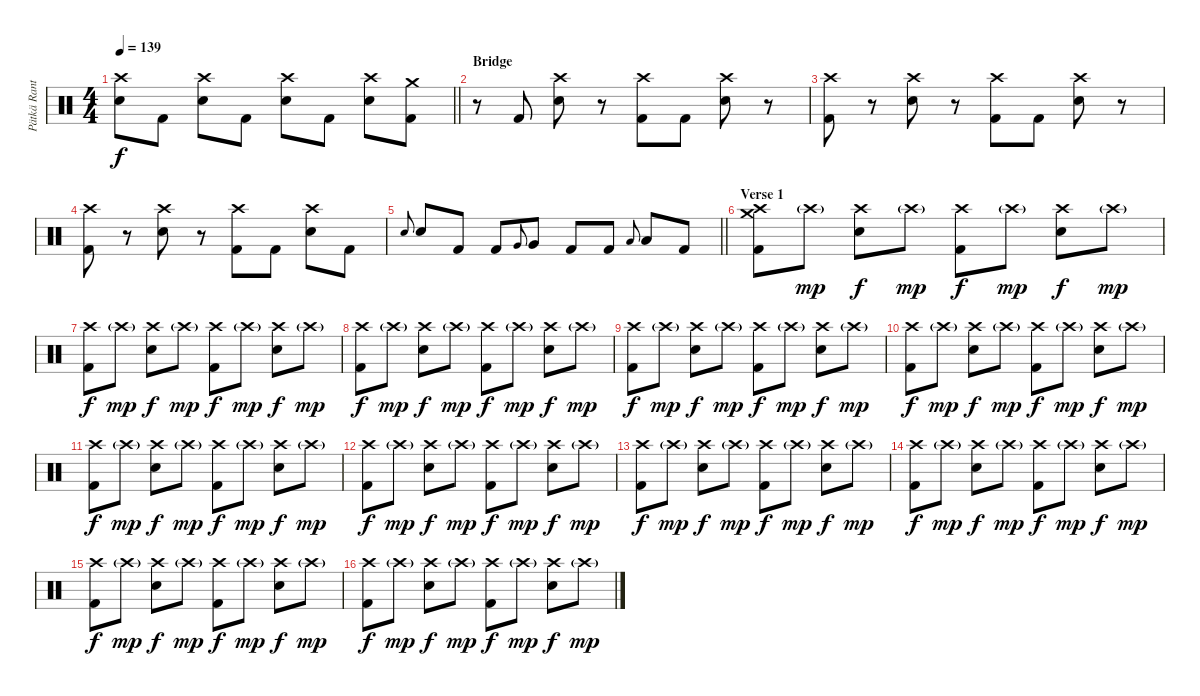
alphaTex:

\track ("Pätkä Rantala (Drums)" "Pätkä Rant") {instrument percussion}
\staff {score}
\articulation defaults
\ts (4 4)
\tempo 139
\clef neutral
\barLineRight lightlight
\ks c
("Crash high (hit)" "Snare (hit) 2").8{dy f} "Kick (hit) 2".8 ("Crash high (hit)" "Snare (hit) 2").8 "Kick (hit) 2".8 ("Crash high (hit)" "Snare (hit) 2").8 "Kick (hit) 2".8 ("Crash high (hit)" "Snare (hit) 2").8 ("Crash medium (hit)" "Kick (hit) 2").8 |
\section ("" "Bridge")
r.8 "Kick (hit) 2".8 ("Crash high (hit)" "Snare (hit) 2").8 r.8 ("Crash high (hit)" "Kick (hit) 2").8 "Kick (hit) 2".8 ("Crash high (hit)" "Snare (hit) 2").8 r.8 |
("Crash high (hit)" "Kick (hit) 2").8 r.8 ("Crash high (hit)" "Snare (hit) 2").8 r.8 ("Crash high (hit)" "Kick (hit) 2").8 "Kick (hit) 2".8 ("Crash high (hit)" "Snare (hit) 2").8 r.8 |
("Crash high (hit)" "Kick (hit) 2").8 r.8 ("Crash high (hit)" "Snare (hit) 2").8 r.8 ("Crash high (hit)" "Kick (hit) 2").8 "Kick (hit) 2".8 ("Crash high (hit)" "Snare (hit) 2").8 "Kick (hit) 2".8 |
\barLineRight lightlight "Snare (hit) 2".8{gr onbeat} "Snare (hit) 2".8 "Kick (hit) 2".8 "Kick (hit) 2".8 "Very Low Tom (hit)".8{gr onbeat} "Very Low Tom (hit)".8 "Kick (hit) 2".8 "Kick (hit) 2".8 "Low Floor Tom (hit)".8{gr onbeat} "Low Floor Tom (hit)".8 "Kick (hit) 2".8
|
\section ("" "Verse 1")
("Crash medium (hit)" "Crash high (hit)" "Kick (hit) 2").8 "Crash high (hit)"{g}.8{dy mp} ("Crash high (hit)" "Snare (hit) 2").8{dy f} "Crash high (hit)"{g}.8{dy mp} ("Crash high (hit)" "Kick (hit) 2").8{dy f} "Crash high (hit)"{g}.8{dy mp} ("Crash high (hit)" "Snare (hit) 2").8{dy f} "Crash high (hit)"{g}.8{dy mp} |
("Crash high (hit)" "Kick (hit) 2").8{dy f} "Crash high (hit)"{g}.8{dy mp} ("Crash high (hit)" "Snare (hit) 2").8{dy f} "Crash high (hit)"{g}.8{dy mp} ("Crash high (hit)" "Kick (hit) 2").8{dy f} "Crash high (hit)"{g}.8{dy mp} ("Crash high (hit)" "Snare (hit) 2").8{dy f} "Crash high (hit)"{g}.8{dy mp} |
("Crash high (hit)" "Kick (hit) 2").8{dy f} "Crash high (hit)"{g}.8{dy mp} ("Crash high (hit)" "Snare (hit) 2").8{dy f} "Crash high (hit)"{g}.8{dy mp} ("Crash high (hit)" "Kick (hit) 2").8{dy f} "Crash high (hit)"{g}.8{dy mp} ("Crash high (hit)" "Snare (hit) 2").8{dy f} "Crash high (hit)"{g}.8{dy mp} |
("Crash high (hit)" "Kick (hit) 2").8{dy f} "Crash high (hit)"{g}.8{dy mp} ("Crash high (hit)" "Snare (hit) 2").8{dy f} "Crash high (hit)"{g}.8{dy mp} ("Crash high (hit)" "Kick (hit) 2").8{dy f} "Crash high (hit)"{g}.8{dy mp} ("Crash high (hit)" "Snare (hit) 2").8{dy f} "Crash high (hit)"{g}.8{dy mp} |
("Crash high (hit)" "Kick (hit) 2").8{dy f} "Crash high (hit)"{g}.8{dy mp} ("Crash high (hit)" "Snare (hit) 2").8{dy f} "Crash high (hit)"{g}.8{dy mp} ("Crash high (hit)" "Kick (hit) 2").8{dy f} "Crash high (hit)"{g}.8{dy mp} ("Crash high (hit)" "Snare (hit) 2").8{dy f} "Crash high (hit)"{g}.8{dy mp} |
("Crash high (hit)" "Kick (hit) 2").8{dy f} "Crash high (hit)"{g}.8{dy mp} ("Crash high (hit)" "Snare (hit) 2").8{dy f} "Crash high (hit)"{g}.8{dy mp} ("Crash high (hit)" "Kick (hit) 2").8{dy f} "Crash high (hit)"{g}.8{dy mp} ("Crash high (hit)" "Snare (hit) 2").8{dy f} "Crash high (hit)"{g}.8{dy mp} |
("Crash high (hit)" "Kick (hit) 2").8{dy f} "Crash high (hit)"{g}.8{dy mp} ("Crash high (hit)" "Snare (hit) 2").8{dy f} "Crash high (hit)"{g}.8{dy mp} ("Crash high (hit)" "Kick (hit) 2").8{dy f} "Crash high (hit)"{g}.8{dy mp} ("Crash high (hit)" "Snare (hit) 2").8{dy f} "Crash high (hit)"{g}.8{dy mp} |
("Crash high (hit)" "Kick (hit) 2").8{dy f} "Crash high (hit)"{g}.8{dy mp} ("Crash high (hit)" "Snare (hit) 2").8{dy f} "Crash high (hit)"{g}.8{dy mp} ("Crash high (hit)" "Kick (hit) 2").8{dy f} "Crash high (hit)"{g}.8{dy mp} ("Crash high (hit)" "Snare (hit) 2").8{dy f} "Crash high (hit)"{g}.8{dy mp} |
("Crash high (hit)" "Kick (hit) 2").8{dy f} "Crash high (hit)"{g}.8{dy mp} ("Crash high (hit)" "Snare (hit) 2").8{dy f} "Crash high (hit)"{g}.8{dy mp} ("Crash high (hit)" "Kick (hit) 2").8{dy f} "Crash high (hit)"{g}.8{dy mp} ("Crash high (hit)" "Snare (hit) 2").8{dy f} "Crash high (hit)"{g}.8{dy mp} |
("Crash high (hit)" "Kick (hit) 2").8{dy f} "Crash high (hit)"{g}.8{dy mp} ("Crash high (hit)" "Snare (hit) 2").8{dy f} "Crash high (hit)"{g}.8{dy mp} ("Crash high (hit)" "Kick (hit) 2").8{dy f} "Crash high (hit)"{g}.8{dy mp} ("Crash high (hit)" "Snare (hit) 2").8{dy f} "Crash high (hit)"{g}.8{dy mp} |
("Crash high (hit)" "Kick (hit) 2").8{dy f} "Crash high (hit)"{g}.8{dy mp} ("Crash high (hit)" "Snare (hit) 2").8{dy f} "Crash high (hit)"{g}.8{dy mp} ("Crash high (hit)" "Kick (hit) 2").8{dy f} "Crash high (hit)"{g}.8{dy mp} ("Crash high (hit)" "Snare (hit) 2").8{dy f} "Crash high (hit)"{g}.8{dy mp}
